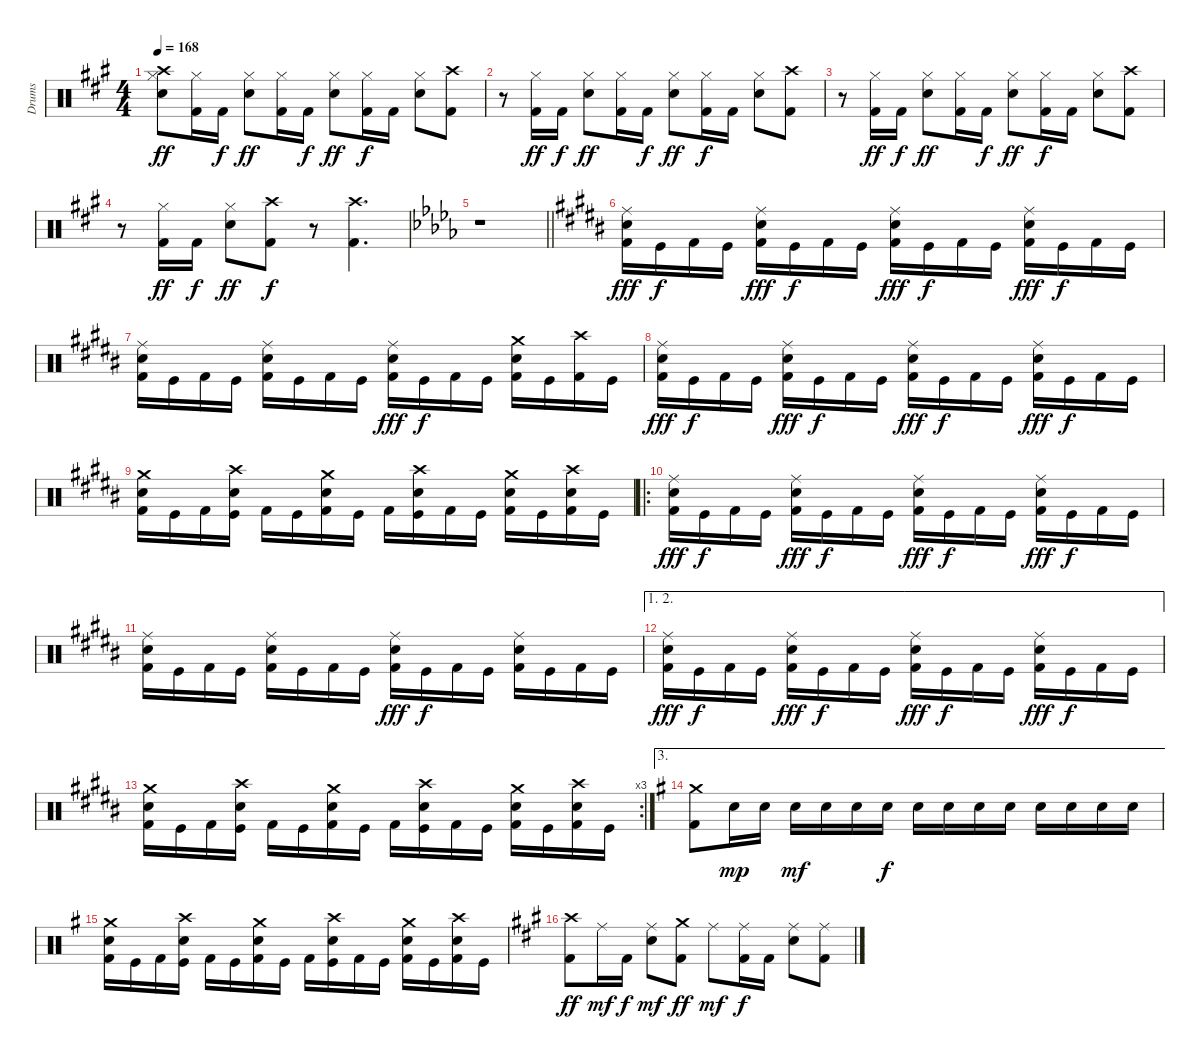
\track ("Drums" "Drums") {instrument percussion}
\staff {score}
\articulation defaults
\ts (4 4)
\tempo 168
\clef neutral
\ks a
("Crash high (hit)" "Hi-Hat (closed)" "Snare (hit) 2").8{dy ff} ("Hi-Hat (closed)" "Kick (hit) 2").16 "Kick (hit) 2".16{dy f} ("Hi-Hat (closed)" "Snare (hit) 2").8{dy ff} ("Hi-Hat (closed)" "Kick (hit) 2").16 "Kick (hit) 2".16{dy f} ("Hi-Hat (closed)" "Snare (hit) 2").8{dy ff} ("Hi-Hat (closed)" "Kick (hit) 2").16{dy f} "Kick (hit) 2".16 ("Hi-Hat (closed)" "Snare (hit) 2").8 ("Crash high (hit)" "Kick (hit) 2").8 |
r.8 ("Hi-Hat (closed)" "Kick (hit) 2").16{dy ff} "Kick (hit) 2".16{dy f} ("Hi-Hat (closed)" "Snare (hit) 2").8{dy ff} ("Hi-Hat (closed)" "Kick (hit) 2").16 "Kick (hit) 2".16{dy f} ("Hi-Hat (closed)" "Snare (hit) 2").8{dy ff} ("Hi-Hat (closed)" "Kick (hit) 2").16{dy f} "Kick (hit) 2".16 ("Hi-Hat (closed)" "Snare (hit) 2").8 ("Crash high (hit)" "Kick (hit) 2").8 |
r.8 ("Hi-Hat (closed)" "Kick (hit) 2").16{dy ff} "Kick (hit) 2".16{dy f} ("Hi-Hat (closed)" "Snare (hit) 2").8{dy ff} ("Hi-Hat (closed)" "Kick (hit) 2").16 "Kick (hit) 2".16{dy f} ("Hi-Hat (closed)" "Snare (hit) 2").8{dy ff} ("Hi-Hat (closed)" "Kick (hit) 2").16{dy f} "Kick (hit) 2".16 ("Hi-Hat (closed)" "Snare (hit) 2").8 ("Crash high (hit)" "Kick (hit) 2").8 |
r.8 ("Hi-Hat (closed)" "Kick (hit) 2").16{dy ff} "Kick (hit) 2".16{dy f} ("Hi-Hat (closed)" "Snare (hit) 2").8{dy ff} ("Crash high (hit)" "Kick (hit) 2").8{dy f} r.8 ("Crash high (hit)" "Kick (hit) 2").4{d} |
\barLineRight lightlight
\ks db
r.1 |
\ks b
("Ride (middle)" "Snare (hit) 2" "Kick (hit) 2").16{dy fff} "Kick (hit)".16{dy f} "Kick (hit) 2".16 "Kick (hit)".16 ("Ride (middle)" "Snare (hit) 2" "Kick (hit) 2").16{dy fff} "Kick (hit)".16{dy f} "Kick (hit) 2".16 "Kick (hit)".16 ("Ride (middle)" "Snare (hit) 2" "Kick (hit) 2").16{dy fff} "Kick (hit)".16{dy f} "Kick (hit) 2".16 "Kick (hit)".16 ("Ride (middle)" "Snare (hit) 2" "Kick (hit) 2").16{dy fff} "Kick (hit)".16{dy f} "Kick (hit) 2".16 "Kick (hit)".16 |
("Ride (middle)" "Snare (hit) 2" "Kick (hit) 2").16 "Kick (hit)".16 "Kick (hit) 2".16 "Kick (hit)".16 ("Ride (middle)" "Snare (hit) 2" "Kick (hit) 2").16 "Kick (hit)".16 "Kick (hit) 2".16 "Kick (hit)".16 ("Ride (middle)" "Snare (hit) 2" "Kick (hit) 2").16{dy fff} "Kick (hit)".16{dy f} "Kick (hit) 2".16 "Kick (hit)".16 ("Crash medium (hit)" "Snare (hit) 2" "Kick (hit) 2").16 "Kick (hit)".16 ("Crash high (hit)" "Kick (hit) 2").16 "Kick (hit)".16 |
("Ride (middle)" "Snare (hit) 2" "Kick (hit) 2").16{dy fff} "Kick (hit)".16{dy f} "Kick (hit) 2".16 "Kick (hit)".16 ("Ride (middle)" "Snare (hit) 2" "Kick (hit) 2").16{dy fff} "Kick (hit)".16{dy f} "Kick (hit) 2".16 "Kick (hit)".16 ("Ride (middle)" "Snare (hit) 2" "Kick (hit) 2").16{dy fff} "Kick (hit)".16{dy f} "Kick (hit) 2".16 "Kick (hit)".16 ("Ride (middle)" "Snare (hit) 2" "Kick (hit) 2").16{dy fff} "Kick (hit)".16{dy f} "Kick (hit) 2".16 "Kick (hit)".16 |
("Crash medium (hit)" "Snare (hit) 2" "Kick (hit) 2").16 "Kick (hit)".16 "Kick (hit) 2".16 ("Crash high (hit)" "Snare (hit) 2" "Kick (hit)").16 "Kick (hit) 2".16 "Kick (hit)".16 ("Crash medium (hit)" "Snare (hit) 2" "Kick (hit) 2").16 "Kick (hit)".16 "Kick (hit) 2".16 ("Crash high (hit)" "Snare (hit) 2" "Kick (hit)").16 "Kick (hit) 2".16 "Kick (hit)".16 ("Crash medium (hit)" "Snare (hit) 2" "Kick (hit) 2").16 "Kick (hit)".16 ("Crash high (hit)" "Snare (hit) 2" "Kick (hit) 2").16 "Kick (hit)".16 |
\ro
("Ride (middle)" "Snare (hit) 2" "Kick (hit) 2").16{dy fff} "Kick (hit)".16{dy f} "Kick (hit) 2".16 "Kick (hit)".16 ("Ride (middle)" "Snare (hit) 2" "Kick (hit) 2").16{dy fff} "Kick (hit)".16{dy f} "Kick (hit) 2".16 "Kick (hit)".16 ("Ride (middle)" "Snare (hit) 2" "Kick (hit) 2").16{dy fff} "Kick (hit)".16{dy f} "Kick (hit) 2".16 "Kick (hit)".16 ("Ride (middle)" "Snare (hit) 2" "Kick (hit) 2").16{dy fff} "Kick (hit)".16{dy f} "Kick (hit) 2".16 "Kick (hit)".16 |
("Ride (middle)" "Snare (hit) 2" "Kick (hit) 2").16 "Kick (hit)".16 "Kick (hit) 2".16 "Kick (hit)".16 ("Ride (middle)" "Snare (hit) 2" "Kick (hit) 2").16 "Kick (hit)".16 "Kick (hit) 2".16 "Kick (hit)".16 ("Ride (middle)" "Snare (hit) 2" "Kick (hit) 2").16{dy fff} "Kick (hit)".16{dy f} "Kick (hit) 2".16 "Kick (hit)".16 ("Ride (middle)" "Snare (hit) 2" "Kick (hit) 2").16 "Kick (hit)".16 "Kick (hit) 2".16 "Kick (hit)".16 |
\ae (1 2)
("Ride (middle)" "Snare (hit) 2" "Kick (hit) 2").16{dy fff} "Kick (hit)".16{dy f} "Kick (hit) 2".16 "Kick (hit)".16 ("Ride (middle)" "Snare (hit) 2" "Kick (hit) 2").16{dy fff} "Kick (hit)".16{dy f} "Kick (hit) 2".16 "Kick (hit)".16 ("Ride (middle)" "Snare (hit) 2" "Kick (hit) 2").16{dy fff} "Kick (hit)".16{dy f} "Kick (hit) 2".16 "Kick (hit)".16 ("Ride (middle)" "Snare (hit) 2" "Kick (hit) 2").16{dy fff} "Kick (hit)".16{dy f} "Kick (hit) 2".16 "Kick (hit)".16 |
\rc 3
("Crash medium (hit)" "Snare (hit) 2" "Kick (hit) 2").16 "Kick (hit)".16 "Kick (hit) 2".16 ("Crash high (hit)" "Snare (hit) 2" "Kick (hit)").16 "Kick (hit) 2".16 "Kick (hit)".16 ("Crash medium (hit)" "Snare (hit) 2" "Kick (hit) 2").16 "Kick (hit)".16 "Kick (hit) 2".16 ("Crash high (hit)" "Snare (hit) 2" "Kick (hit)").16 "Kick (hit) 2".16 "Kick (hit)".16 ("Crash medium (hit)" "Snare (hit) 2" "Kick (hit) 2").16 "Kick (hit)".16 ("Crash high (hit)" "Snare (hit) 2" "Kick (hit) 2").16 "Kick (hit)".16 |
\ae 3
\ks g
("Crash medium (hit)" "Kick (hit) 2").8 "Snare (hit) 2".16{dy mp} "Snare (hit) 2".16 "Snare (hit) 2".16{dy mf} "Snare (hit) 2".16 "Snare (hit) 2".16 "Snare (hit) 2".16{dy f} "Snare (hit) 2".16 "Snare (hit) 2".16 "Snare (hit) 2".16 "Snare (hit) 2".16 "Snare (hit) 2".16 "Snare (hit) 2".16 "Snare (hit) 2".16 "Snare (hit) 2".16 |
("Crash medium (hit)" "Snare (hit) 2" "Kick (hit) 2").16 "Kick (hit)".16 "Kick (hit) 2".16 ("Crash high (hit)" "Snare (hit) 2" "Kick (hit)").16 "Kick (hit) 2".16 "Kick (hit)".16 ("Crash medium (hit)" "Snare (hit) 2" "Kick (hit) 2").16 "Kick (hit)".16 "Kick (hit) 2".16 ("Crash high (hit)" "Snare (hit) 2" "Kick (hit)").16 "Kick (hit) 2".16 "Kick (hit)".16 ("Crash medium (hit)" "Snare (hit) 2" "Kick (hit) 2").16 "Kick (hit)".16 ("Crash high (hit)" "Snare (hit) 2" "Kick (hit) 2").16 "Kick (hit)".16 |
\ks a
("Crash high (hit)" "Kick (hit) 2").8{dy ff} "Ride (middle)".16{dy mf} "Kick (hit) 2".16{dy f} ("Ride (middle)" "Snare (hit) 2").8{dy mf} ("Crash medium (hit)" "Kick (hit) 2").8{dy ff} "Ride (middle)".8{dy mf} ("Ride (middle)" "Kick (hit) 2").16{dy f} "Kick (hit) 2".16 ("Ride (middle)" "Snare (hit) 2").8 ("Ride (middle)" "Kick (hit) 2").8
